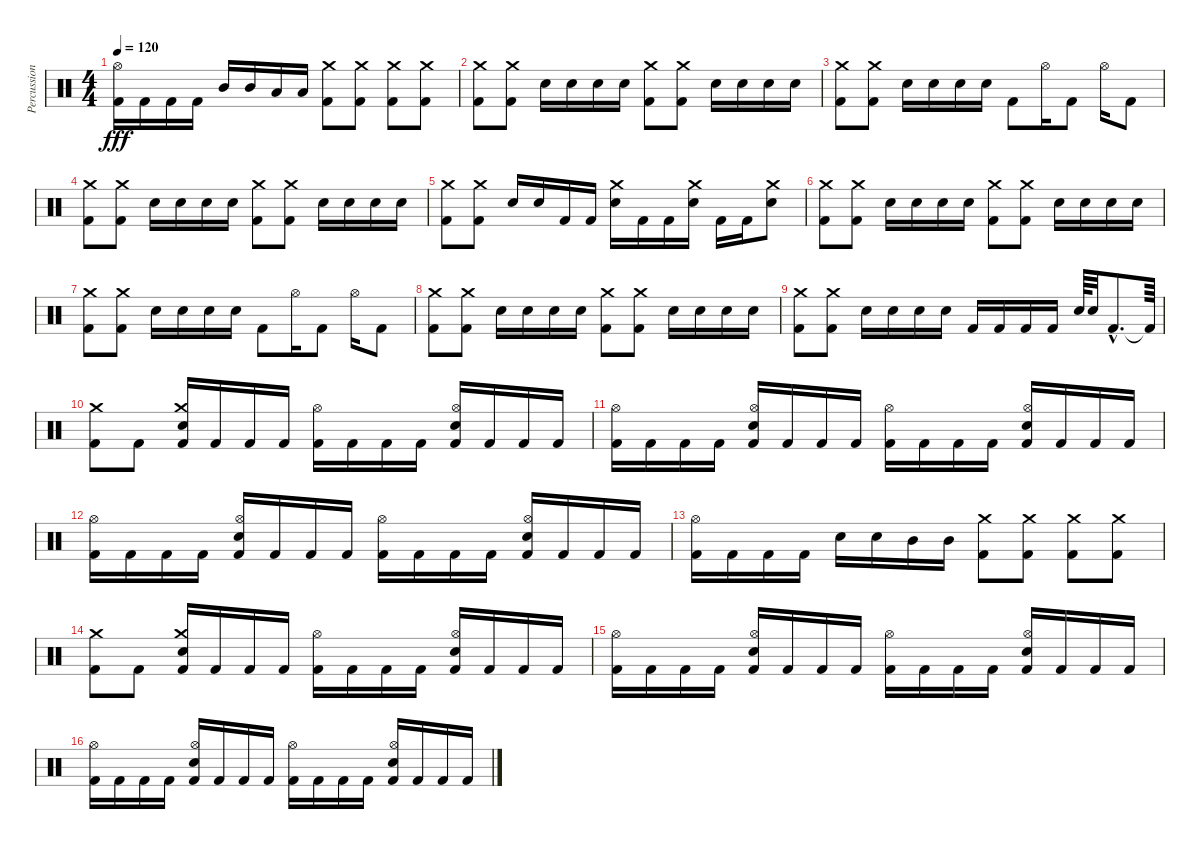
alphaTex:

\track ("Percussion" "Percussion") {instrument percussion}
\staff {score}
\articulation defaults
\ts (4 4)
\tempo 120
\clef neutral
\ks c
("Kick (hit) 2" "Hi-Hat (open)").16{dy fff} "Kick (hit) 2".16 "Kick (hit) 2".16 "Kick (hit) 2".16 "Mid Tom (hit)".16 "Mid Tom (hit)".16 "Low Tom (hit)".16 "Low Tom (hit)".16 ("Kick (hit) 2" "Crash medium (hit)").8 ("Kick (hit) 2" "Crash medium (hit)").8 ("Kick (hit) 2" "Crash medium (hit)").8 ("Kick (hit) 2" "Crash medium (hit)").8 |
("Kick (hit) 2" "Crash medium (hit)").8 ("Kick (hit) 2" "Crash medium (hit)").8 "Electric Snare (hit)".16 "Electric Snare (hit)".16 "Electric Snare (hit)".16 "Electric Snare (hit)".16 ("Kick (hit) 2" "Crash medium (hit)").8 ("Kick (hit) 2" "Crash medium (hit)").8 "Electric Snare (hit)".16 "Electric Snare (hit)".16 "Electric Snare (hit)".16 "Electric Snare (hit)".16 |
("Kick (hit) 2" "Crash medium (hit)").8 ("Kick (hit) 2" "Crash medium (hit)").8 "Electric Snare (hit)".16 "Electric Snare (hit)".16 "Electric Snare (hit)".16 "Electric Snare (hit)".16 "Kick (hit) 2".8 "Hi-Hat (open)".16 "Kick (hit) 2".8 "Hi-Hat (open)".16 "Kick (hit) 2".8 |
("Kick (hit) 2" "Crash medium (hit)").8 ("Kick (hit) 2" "Crash medium (hit)").8 "Electric Snare (hit)".16 "Electric Snare (hit)".16 "Electric Snare (hit)".16 "Electric Snare (hit)".16 ("Kick (hit) 2" "Crash medium (hit)").8 ("Kick (hit) 2" "Crash medium (hit)").8 "Electric Snare (hit)".16 "Electric Snare (hit)".16 "Electric Snare (hit)".16 "Electric Snare (hit)".16 |
("Kick (hit) 2" "Crash medium (hit)").8 ("Kick (hit) 2" "Crash medium (hit)").8 "Electric Snare (hit)".16 "Electric Snare (hit)".16 "Kick (hit) 2".16 "Kick (hit) 2".16 ("Electric Snare (hit)" "Crash medium (hit)").16 "Kick (hit) 2".16 "Kick (hit) 2".16 ("Electric Snare (hit)" "Crash medium (hit)").16 "Kick (hit) 2".16 "Kick (hit) 2".16 ("Electric Snare (hit)" "Crash medium (hit)").8 |
("Kick (hit) 2" "Crash medium (hit)").8 ("Kick (hit) 2" "Crash medium (hit)").8 "Electric Snare (hit)".16 "Electric Snare (hit)".16 "Electric Snare (hit)".16 "Electric Snare (hit)".16 ("Kick (hit) 2" "Crash medium (hit)").8 ("Kick (hit) 2" "Crash medium (hit)").8 "Electric Snare (hit)".16 "Electric Snare (hit)".16 "Electric Snare (hit)".16 "Electric Snare (hit)".16 |
("Kick (hit) 2" "Crash medium (hit)").8 ("Kick (hit) 2" "Crash medium (hit)").8 "Electric Snare (hit)".16 "Electric Snare (hit)".16 "Electric Snare (hit)".16 "Electric Snare (hit)".16 "Kick (hit) 2".8 "Hi-Hat (open)".16 "Kick (hit) 2".8 "Hi-Hat (open)".16 "Kick (hit) 2".8 |
("Kick (hit) 2" "Crash medium (hit)").8 ("Kick (hit) 2" "Crash medium (hit)").8 "Electric Snare (hit)".16 "Electric Snare (hit)".16 "Electric Snare (hit)".16 "Electric Snare (hit)".16 ("Kick (hit) 2" "Crash medium (hit)").8 ("Kick (hit) 2" "Crash medium (hit)").8 "Electric Snare (hit)".16 "Electric Snare (hit)".16 "Electric Snare (hit)".16 "Electric Snare (hit)".16 |
("Kick (hit) 2" "Crash medium (hit)").8 ("Kick (hit) 2" "Crash medium (hit)").8 "Electric Snare (hit)".16 "Electric Snare (hit)".16 "Electric Snare (hit)".16 "Electric Snare (hit)".16 "Kick (hit) 2".16 "Kick (hit) 2".16 "Kick (hit) 2".16 "Kick (hit) 2".16 "Electric Snare (hit)".64 "Electric Snare (hit)".32 "Kick (hit) 2"{hac}.8{d} "Kick (hit) 2"{t}.64 |
("Kick (hit) 2" "Crash medium (hit)").8 "Kick (hit) 2".8 ("Kick (hit) 2" "Electric Snare (hit)" "Crash medium (hit)").16 "Kick (hit) 2".16 "Kick (hit) 2".16 "Kick (hit) 2".16 ("Kick (hit) 2" "Hi-Hat (open)").16 "Kick (hit) 2".16 "Kick (hit) 2".16 "Kick (hit) 2".16 ("Kick (hit) 2" "Electric Snare (hit)" "Hi-Hat (open)").16 "Kick (hit) 2".16 "Kick (hit) 2".16 "Kick (hit) 2".16 |
("Kick (hit) 2" "Hi-Hat (open)").16 "Kick (hit) 2".16 "Kick (hit) 2".16 "Kick (hit) 2".16 ("Kick (hit) 2" "Electric Snare (hit)" "Hi-Hat (open)").16 "Kick (hit) 2".16 "Kick (hit) 2".16 "Kick (hit) 2".16 ("Kick (hit) 2" "Hi-Hat (open)").16 "Kick (hit) 2".16 "Kick (hit) 2".16 "Kick (hit) 2".16 ("Kick (hit) 2" "Electric Snare (hit)" "Hi-Hat (open)").16 "Kick (hit) 2".16 "Kick (hit) 2".16 "Kick (hit) 2".16 |
("Kick (hit) 2" "Hi-Hat (open)").16 "Kick (hit) 2".16 "Kick (hit) 2".16 "Kick (hit) 2".16 ("Kick (hit) 2" "Electric Snare (hit)" "Hi-Hat (open)").16 "Kick (hit) 2".16 "Kick (hit) 2".16 "Kick (hit) 2".16 ("Kick (hit) 2" "Hi-Hat (open)").16 "Kick (hit) 2".16 "Kick (hit) 2".16 "Kick (hit) 2".16 ("Kick (hit) 2" "Electric Snare (hit)" "Hi-Hat (open)").16 "Kick (hit) 2".16 "Kick (hit) 2".16 "Kick (hit) 2".16 |
("Kick (hit) 2" "Hi-Hat (open)").16 "Kick (hit) 2".16 "Kick (hit) 2".16 "Kick (hit) 2".16 "Electric Snare (hit)".16 "Electric Snare (hit)".16 "Mid Tom (hit)".16 "Mid Tom (hit)".16 ("Kick (hit) 2" "Crash medium (hit)").8 ("Kick (hit) 2" "Crash medium (hit)").8 ("Kick (hit) 2" "Crash medium (hit)").8 ("Kick (hit) 2" "Crash medium (hit)").8 |
("Kick (hit) 2" "Crash medium (hit)").8 "Kick (hit) 2".8 ("Kick (hit) 2" "Electric Snare (hit)" "Crash medium (hit)").16 "Kick (hit) 2".16 "Kick (hit) 2".16 "Kick (hit) 2".16 ("Kick (hit) 2" "Hi-Hat (open)").16 "Kick (hit) 2".16 "Kick (hit) 2".16 "Kick (hit) 2".16 ("Kick (hit) 2" "Electric Snare (hit)" "Hi-Hat (open)").16 "Kick (hit) 2".16 "Kick (hit) 2".16 "Kick (hit) 2".16 |
("Kick (hit) 2" "Hi-Hat (open)").16 "Kick (hit) 2".16 "Kick (hit) 2".16 "Kick (hit) 2".16 ("Kick (hit) 2" "Electric Snare (hit)" "Hi-Hat (open)").16 "Kick (hit) 2".16 "Kick (hit) 2".16 "Kick (hit) 2".16 ("Kick (hit) 2" "Hi-Hat (open)").16 "Kick (hit) 2".16 "Kick (hit) 2".16 "Kick (hit) 2".16 ("Kick (hit) 2" "Electric Snare (hit)" "Hi-Hat (open)").16 "Kick (hit) 2".16 "Kick (hit) 2".16 "Kick (hit) 2".16 |
("Kick (hit) 2" "Hi-Hat (open)").16 "Kick (hit) 2".16 "Kick (hit) 2".16 "Kick (hit) 2".16 ("Kick (hit) 2" "Electric Snare (hit)" "Hi-Hat (open)").16 "Kick (hit) 2".16 "Kick (hit) 2".16 "Kick (hit) 2".16 ("Kick (hit) 2" "Hi-Hat (open)").16 "Kick (hit) 2".16 "Kick (hit) 2".16 "Kick (hit) 2".16 ("Kick (hit) 2" "Electric Snare (hit)" "Hi-Hat (open)").16 "Kick (hit) 2".16 "Kick (hit) 2".16 "Kick (hit) 2".16
